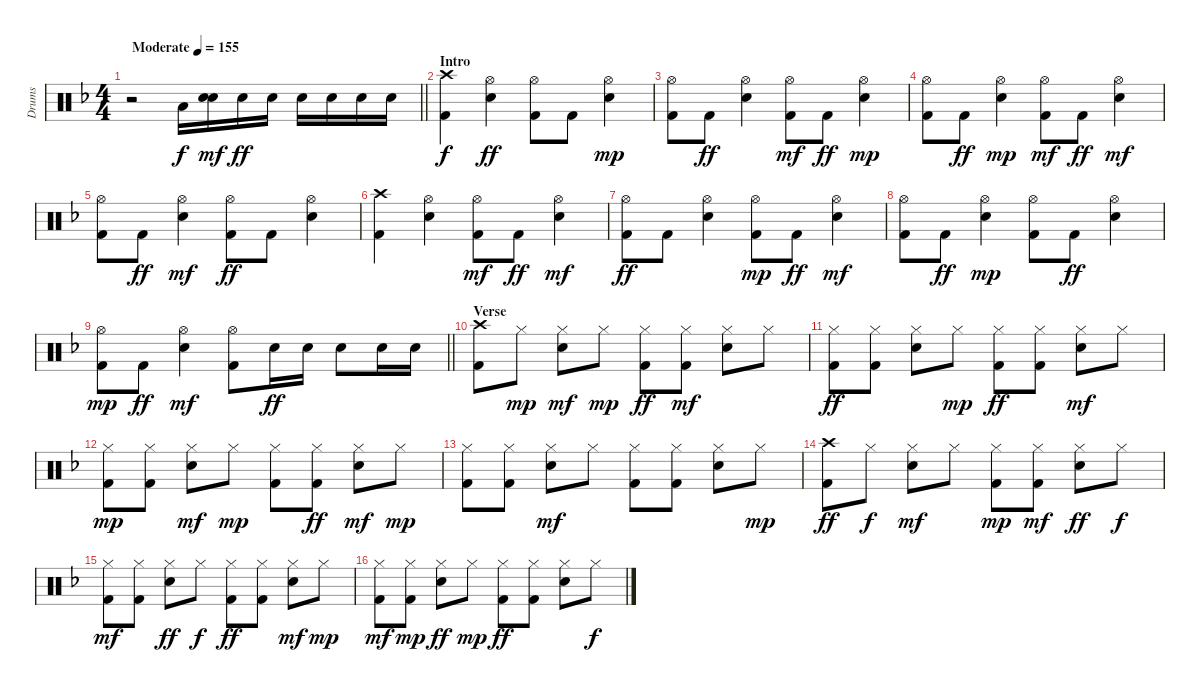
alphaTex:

\track ("Drums" "Drums") {instrument percussion}
\staff {score}
\articulation defaults
\ts (4 4)
\tempo (155 "Moderate")
\clef neutral
\barLineRight lightlight
\ks f
r.2{dy f} "Low Tom (hit)".16 ("Electric Snare (hit)" "Snare (hit) 2").16{dy mf} "Snare (hit) 2".16{dy ff} "Snare (hit) 2".16 "Snare (hit) 2".16 "Snare (hit) 2".16 "Snare (hit) 2".16 "Snare (hit) 2".16 |
\section ("" "Intro")
("Kick (hit) 2" "Crash high (hit)").4{dy f} ("Snare (hit) 2" "Hi-Hat (open)").4{dy ff} ("Kick (hit) 2" "Hi-Hat (open)").8 "Kick (hit) 2".8 ("Snare (hit) 2" "Hi-Hat (open)").4{dy mp} |
("Kick (hit) 2" "Hi-Hat (open)").8 "Kick (hit) 2".8{dy ff} ("Snare (hit) 2" "Hi-Hat (open)").4 ("Kick (hit) 2" "Hi-Hat (open)").8{dy mf} "Kick (hit) 2".8{dy ff} ("Snare (hit) 2" "Hi-Hat (open)").4{dy mp} |
("Kick (hit) 2" "Hi-Hat (open)").8 "Kick (hit) 2".8{dy ff} ("Snare (hit) 2" "Hi-Hat (open)").4{dy mp} ("Kick (hit) 2" "Hi-Hat (open)").8{dy mf} "Kick (hit) 2".8{dy ff} ("Snare (hit) 2" "Hi-Hat (open)").4{dy mf} |
("Kick (hit) 2" "Hi-Hat (open)").8 "Kick (hit) 2".8{dy ff} ("Snare (hit) 2" "Hi-Hat (open)").4{dy mf} ("Kick (hit) 2" "Hi-Hat (open)").8{dy ff} "Kick (hit) 2".8 ("Snare (hit) 2" "Hi-Hat (open)").4 |
("Kick (hit) 2" "Crash high (hit)").4 ("Snare (hit) 2" "Hi-Hat (open)").4 ("Kick (hit) 2" "Hi-Hat (open)").8{dy mf} "Kick (hit) 2".8{dy ff} ("Snare (hit) 2" "Hi-Hat (open)").4{dy mf} |
("Kick (hit) 2" "Hi-Hat (open)").8{dy ff} "Kick (hit) 2".8 ("Snare (hit) 2" "Hi-Hat (open)").4 ("Kick (hit) 2" "Hi-Hat (open)").8{dy mp} "Kick (hit) 2".8{dy ff} ("Snare (hit) 2" "Hi-Hat (open)").4{dy mf} |
("Kick (hit) 2" "Hi-Hat (open)").8 "Kick (hit) 2".8{dy ff} ("Snare (hit) 2" "Hi-Hat (open)").4{dy mp} ("Kick (hit) 2" "Hi-Hat (open)").8 "Kick (hit) 2".8{dy ff} ("Snare (hit) 2" "Hi-Hat (open)").4 |
\barLineRight lightlight
("Kick (hit) 2" "Hi-Hat (open)").8{dy mp} "Kick (hit) 2".8{dy ff} ("Snare (hit) 2" "Hi-Hat (open)").4{dy mf} ("Kick (hit) 2" "Hi-Hat (open)").8 "Snare (hit) 2".16{dy ff} "Snare (hit) 2".16 "Snare (hit) 2".8 "Snare (hit) 2".16 "Snare (hit) 2".16 |
\section ("" "Verse")
("Kick (hit) 2" "Crash high (hit)").8 "Hi-Hat (closed)".8{dy mp} ("Snare (hit) 2" "Hi-Hat (closed)").8{dy mf} "Hi-Hat (closed)".8{dy mp} ("Kick (hit) 2" "Hi-Hat (closed)").8{dy ff} ("Kick (hit) 2" "Hi-Hat (closed)").8{dy mf} ("Snare (hit) 2" "Hi-Hat (closed)").8 "Hi-Hat (closed)".8 |
("Kick (hit) 2" "Hi-Hat (closed)").8{dy ff} ("Kick (hit) 2" "Hi-Hat (closed)").8 ("Snare (hit) 2" "Hi-Hat (closed)").8 "Hi-Hat (closed)".8{dy mp} ("Kick (hit) 2" "Hi-Hat (closed)").8{dy ff} ("Kick (hit) 2" "Hi-Hat (closed)").8 ("Snare (hit) 2" "Hi-Hat (closed)").8{dy mf} "Hi-Hat (closed)".8 |
("Kick (hit) 2" "Hi-Hat (closed)").8{dy mp} ("Kick (hit) 2" "Hi-Hat (closed)").8 ("Snare (hit) 2" "Hi-Hat (closed)").8{dy mf} "Hi-Hat (closed)".8{dy mp} ("Kick (hit) 2" "Hi-Hat (closed)").8 ("Kick (hit) 2" "Hi-Hat (closed)").8{dy ff} ("Snare (hit) 2" "Hi-Hat (closed)").8{dy mf} "Hi-Hat (closed)".8{dy mp} |
("Kick (hit) 2" "Hi-Hat (closed)").8 ("Kick (hit) 2" "Hi-Hat (closed)").8 ("Snare (hit) 2" "Hi-Hat (closed)").8{dy mf} "Hi-Hat (closed)".8 ("Kick (hit) 2" "Hi-Hat (closed)").8 ("Kick (hit) 2" "Hi-Hat (closed)").8 ("Snare (hit) 2" "Hi-Hat (closed)").8 "Hi-Hat (closed)".8{dy mp} |
("Kick (hit) 2" "Crash high (hit)").8{dy ff} "Hi-Hat (closed)".8{dy f} ("Snare (hit) 2" "Hi-Hat (closed)").8{dy mf} "Hi-Hat (closed)".8 ("Kick (hit) 2" "Hi-Hat (closed)").8{dy mp} ("Kick (hit) 2" "Hi-Hat (closed)").8{dy mf} ("Snare (hit) 2" "Hi-Hat (closed)").8{dy ff} "Hi-Hat (closed)".8{dy f} |
("Kick (hit) 2" "Hi-Hat (closed)").8{dy mf} ("Kick (hit) 2" "Hi-Hat (closed)").8 ("Snare (hit) 2" "Hi-Hat (closed)").8{dy ff} "Hi-Hat (closed)".8{dy f} ("Kick (hit) 2" "Hi-Hat (closed)").8{dy ff} ("Kick (hit) 2" "Hi-Hat (closed)").8 ("Snare (hit) 2" "Hi-Hat (closed)").8{dy mf} "Hi-Hat (closed)".8{dy mp} |
("Kick (hit) 2" "Hi-Hat (closed)").8{dy mf} ("Kick (hit) 2" "Hi-Hat (closed)").8{dy mp} ("Snare (hit) 2" "Hi-Hat (closed)").8{dy ff} "Hi-Hat (closed)".8{dy mp} ("Kick (hit) 2" "Hi-Hat (closed)").8{dy ff} ("Kick (hit) 2" "Hi-Hat (closed)").8 ("Snare (hit) 2" "Hi-Hat (closed)").8 "Hi-Hat (closed)".8{dy f}
